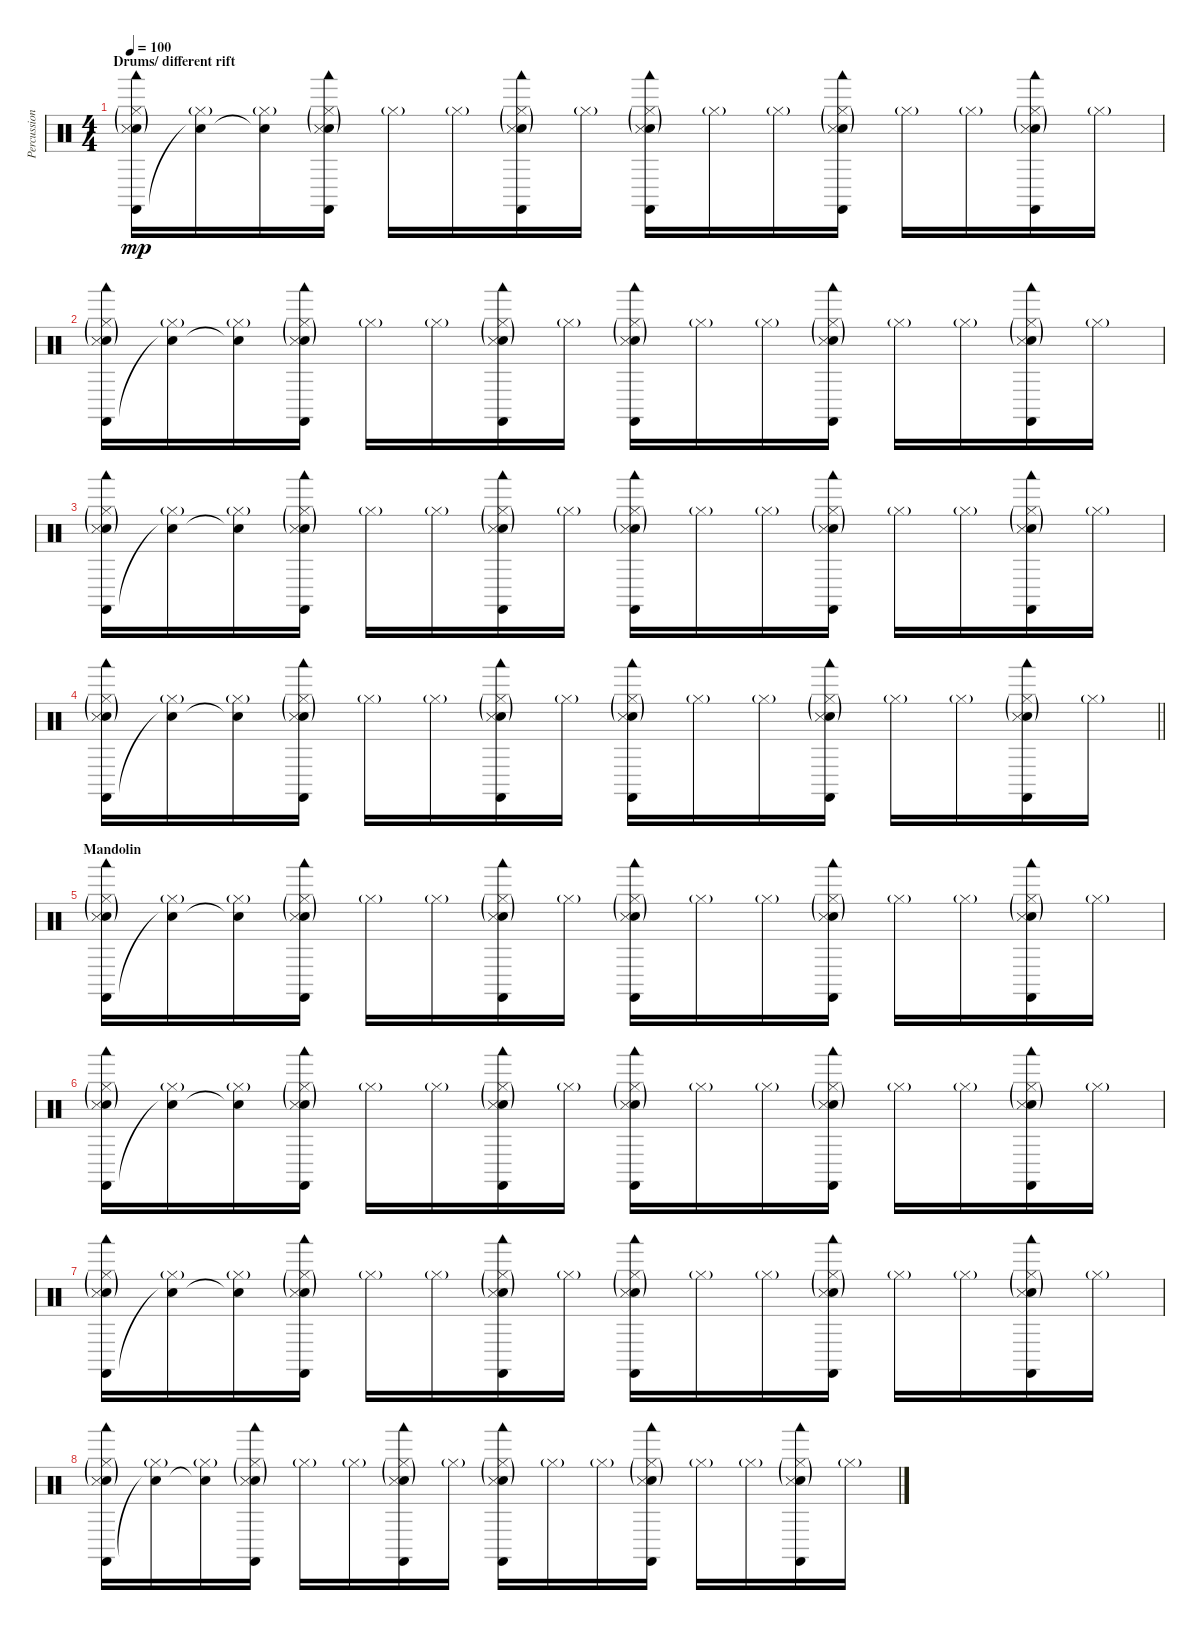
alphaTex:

\track ("Percussion" "Percussion") {instrument percussion}
\staff {score}
\articulation defaults
\ts (4 4)
\section ("" "Drums/ different rift")
\tempo 100
\clef neutral
\ks c
("Hi-Hat (closed)"{g} "Castanets (hit)" "Woodblock low (hit)" "Electric Snare (hit)"{g} "Metronome (hit)"{g}).16{dy mp balance 4} ("Hi-Hat (closed)"{g} "Snare (hit)"{t}).16 ("Hi-Hat (closed)"{g} "Snare (hit)"{t}).16 ("Hi-Hat (closed)"{g} "Castanets (hit)" "Woodblock low (hit)" "Electric Snare (hit)"{g} "Metronome (hit)"{g}).16 "Hi-Hat (closed)"{g}.16 "Hi-Hat (closed)"{g}.16 ("Hi-Hat (closed)"{g} "Castanets (hit)" "Woodblock low (hit)" "Electric Snare (hit)"{g} "Metronome (hit)"{g}).16 "Hi-Hat (closed)"{g}.16 ("Hi-Hat (closed)"{g} "Castanets (hit)" "Woodblock low (hit)" "Electric Snare (hit)"{g} "Metronome (hit)"{g}).16 "Hi-Hat (closed)"{g}.16 "Hi-Hat (closed)"{g}.16 ("Hi-Hat (closed)"{g} "Castanets (hit)" "Woodblock low (hit)" "Electric Snare (hit)"{g} "Metronome (hit)"{g}).16 "Hi-Hat (closed)"{g}.16 "Hi-Hat (closed)"{g}.16 ("Hi-Hat (closed)"{g} "Castanets (hit)" "Woodblock low (hit)" "Electric Snare (hit)"{g} "Metronome (hit)"{g}).16 "Hi-Hat (closed)"{g}.16 |
("Hi-Hat (closed)"{g} "Castanets (hit)" "Woodblock low (hit)" "Electric Snare (hit)"{g} "Metronome (hit)"{g}).16 ("Hi-Hat (closed)"{g} "Snare (hit)"{t}).16 ("Hi-Hat (closed)"{g} "Snare (hit)"{t}).16 ("Hi-Hat (closed)"{g} "Castanets (hit)" "Woodblock low (hit)" "Electric Snare (hit)"{g} "Metronome (hit)"{g}).16 "Hi-Hat (closed)"{g}.16 "Hi-Hat (closed)"{g}.16 ("Hi-Hat (closed)"{g} "Castanets (hit)" "Woodblock low (hit)" "Electric Snare (hit)"{g} "Metronome (hit)"{g}).16 "Hi-Hat (closed)"{g}.16 ("Hi-Hat (closed)"{g} "Castanets (hit)" "Woodblock low (hit)" "Electric Snare (hit)"{g} "Metronome (hit)"{g}).16 "Hi-Hat (closed)"{g}.16 "Hi-Hat (closed)"{g}.16 ("Hi-Hat (closed)"{g} "Castanets (hit)" "Woodblock low (hit)" "Electric Snare (hit)"{g} "Metronome (hit)"{g}).16 "Hi-Hat (closed)"{g}.16 "Hi-Hat (closed)"{g}.16 ("Hi-Hat (closed)"{g} "Castanets (hit)" "Woodblock low (hit)" "Electric Snare (hit)"{g} "Metronome (hit)"{g}).16 "Hi-Hat (closed)"{g}.16 |
("Hi-Hat (closed)"{g} "Castanets (hit)" "Woodblock low (hit)" "Electric Snare (hit)"{g} "Metronome (hit)"{g}).16 ("Hi-Hat (closed)"{g} "Snare (hit)"{t}).16 ("Hi-Hat (closed)"{g} "Snare (hit)"{t}).16 ("Hi-Hat (closed)"{g} "Castanets (hit)" "Woodblock low (hit)" "Electric Snare (hit)"{g} "Metronome (hit)"{g}).16 "Hi-Hat (closed)"{g}.16 "Hi-Hat (closed)"{g}.16 ("Hi-Hat (closed)"{g} "Castanets (hit)" "Woodblock low (hit)" "Electric Snare (hit)"{g} "Metronome (hit)"{g}).16 "Hi-Hat (closed)"{g}.16 ("Hi-Hat (closed)"{g} "Castanets (hit)" "Woodblock low (hit)" "Electric Snare (hit)"{g} "Metronome (hit)"{g}).16 "Hi-Hat (closed)"{g}.16 "Hi-Hat (closed)"{g}.16 ("Hi-Hat (closed)"{g} "Castanets (hit)" "Woodblock low (hit)" "Electric Snare (hit)"{g} "Metronome (hit)"{g}).16 "Hi-Hat (closed)"{g}.16 "Hi-Hat (closed)"{g}.16 ("Hi-Hat (closed)"{g} "Castanets (hit)" "Woodblock low (hit)" "Electric Snare (hit)"{g} "Metronome (hit)"{g}).16 "Hi-Hat (closed)"{g}.16 |
\barLineRight lightlight
("Hi-Hat (closed)"{g} "Castanets (hit)" "Woodblock low (hit)" "Electric Snare (hit)"{g} "Metronome (hit)"{g}).16 ("Hi-Hat (closed)"{g} "Snare (hit)"{t}).16 ("Hi-Hat (closed)"{g} "Snare (hit)"{t}).16 ("Hi-Hat (closed)"{g} "Castanets (hit)" "Woodblock low (hit)" "Electric Snare (hit)"{g} "Metronome (hit)"{g}).16 "Hi-Hat (closed)"{g}.16 "Hi-Hat (closed)"{g}.16 ("Hi-Hat (closed)"{g} "Castanets (hit)" "Woodblock low (hit)" "Electric Snare (hit)"{g} "Metronome (hit)"{g}).16 "Hi-Hat (closed)"{g}.16 ("Hi-Hat (closed)"{g} "Castanets (hit)" "Woodblock low (hit)" "Electric Snare (hit)"{g} "Metronome (hit)"{g}).16 "Hi-Hat (closed)"{g}.16 "Hi-Hat (closed)"{g}.16 ("Hi-Hat (closed)"{g} "Castanets (hit)" "Woodblock low (hit)" "Electric Snare (hit)"{g} "Metronome (hit)"{g}).16 "Hi-Hat (closed)"{g}.16 "Hi-Hat (closed)"{g}.16 ("Hi-Hat (closed)"{g} "Castanets (hit)" "Woodblock low (hit)" "Electric Snare (hit)"{g} "Metronome (hit)"{g}).16 "Hi-Hat (closed)"{g}.16 |
\section ("" "Mandolin")
("Hi-Hat (closed)"{g} "Castanets (hit)" "Woodblock low (hit)" "Electric Snare (hit)"{g} "Metronome (hit)"{g}).16 ("Hi-Hat (closed)"{g} "Snare (hit)"{t}).16 ("Hi-Hat (closed)"{g} "Snare (hit)"{t}).16 ("Hi-Hat (closed)"{g} "Castanets (hit)" "Woodblock low (hit)" "Electric Snare (hit)"{g} "Metronome (hit)"{g}).16 "Hi-Hat (closed)"{g}.16 "Hi-Hat (closed)"{g}.16 ("Hi-Hat (closed)"{g} "Castanets (hit)" "Woodblock low (hit)" "Electric Snare (hit)"{g} "Metronome (hit)"{g}).16 "Hi-Hat (closed)"{g}.16 ("Hi-Hat (closed)"{g} "Castanets (hit)" "Woodblock low (hit)" "Electric Snare (hit)"{g} "Metronome (hit)"{g}).16 "Hi-Hat (closed)"{g}.16 "Hi-Hat (closed)"{g}.16 ("Hi-Hat (closed)"{g} "Castanets (hit)" "Woodblock low (hit)" "Electric Snare (hit)"{g} "Metronome (hit)"{g}).16 "Hi-Hat (closed)"{g}.16 "Hi-Hat (closed)"{g}.16 ("Hi-Hat (closed)"{g} "Castanets (hit)" "Woodblock low (hit)" "Electric Snare (hit)"{g} "Metronome (hit)"{g}).16 "Hi-Hat (closed)"{g}.16 |
("Hi-Hat (closed)"{g} "Castanets (hit)" "Woodblock low (hit)" "Electric Snare (hit)"{g} "Metronome (hit)"{g}).16 ("Hi-Hat (closed)"{g} "Snare (hit)"{t}).16 ("Hi-Hat (closed)"{g} "Snare (hit)"{t}).16 ("Hi-Hat (closed)"{g} "Castanets (hit)" "Woodblock low (hit)" "Electric Snare (hit)"{g} "Metronome (hit)"{g}).16 "Hi-Hat (closed)"{g}.16 "Hi-Hat (closed)"{g}.16 ("Hi-Hat (closed)"{g} "Castanets (hit)" "Woodblock low (hit)" "Electric Snare (hit)"{g} "Metronome (hit)"{g}).16 "Hi-Hat (closed)"{g}.16 ("Hi-Hat (closed)"{g} "Castanets (hit)" "Woodblock low (hit)" "Electric Snare (hit)"{g} "Metronome (hit)"{g}).16 "Hi-Hat (closed)"{g}.16 "Hi-Hat (closed)"{g}.16 ("Hi-Hat (closed)"{g} "Castanets (hit)" "Woodblock low (hit)" "Electric Snare (hit)"{g} "Metronome (hit)"{g}).16 "Hi-Hat (closed)"{g}.16 "Hi-Hat (closed)"{g}.16 ("Hi-Hat (closed)"{g} "Castanets (hit)" "Woodblock low (hit)" "Electric Snare (hit)"{g} "Metronome (hit)"{g}).16 "Hi-Hat (closed)"{g}.16 |
("Hi-Hat (closed)"{g} "Castanets (hit)" "Woodblock low (hit)" "Electric Snare (hit)"{g} "Metronome (hit)"{g}).16 ("Hi-Hat (closed)"{g} "Snare (hit)"{t}).16 ("Hi-Hat (closed)"{g} "Snare (hit)"{t}).16 ("Hi-Hat (closed)"{g} "Castanets (hit)" "Woodblock low (hit)" "Electric Snare (hit)"{g} "Metronome (hit)"{g}).16 "Hi-Hat (closed)"{g}.16 "Hi-Hat (closed)"{g}.16 ("Hi-Hat (closed)"{g} "Castanets (hit)" "Woodblock low (hit)" "Electric Snare (hit)"{g} "Metronome (hit)"{g}).16 "Hi-Hat (closed)"{g}.16 ("Hi-Hat (closed)"{g} "Castanets (hit)" "Woodblock low (hit)" "Electric Snare (hit)"{g} "Metronome (hit)"{g}).16 "Hi-Hat (closed)"{g}.16 "Hi-Hat (closed)"{g}.16 ("Hi-Hat (closed)"{g} "Castanets (hit)" "Woodblock low (hit)" "Electric Snare (hit)"{g} "Metronome (hit)"{g}).16 "Hi-Hat (closed)"{g}.16 "Hi-Hat (closed)"{g}.16 ("Hi-Hat (closed)"{g} "Castanets (hit)" "Woodblock low (hit)" "Electric Snare (hit)"{g} "Metronome (hit)"{g}).16 "Hi-Hat (closed)"{g}.16 |
("Hi-Hat (closed)"{g} "Castanets (hit)" "Woodblock low (hit)" "Electric Snare (hit)"{g} "Metronome (hit)"{g}).16 ("Hi-Hat (closed)"{g} "Snare (hit)"{t}).16 ("Hi-Hat (closed)"{g} "Snare (hit)"{t}).16 ("Hi-Hat (closed)"{g} "Castanets (hit)" "Woodblock low (hit)" "Electric Snare (hit)"{g} "Metronome (hit)"{g}).16 "Hi-Hat (closed)"{g}.16 "Hi-Hat (closed)"{g}.16 ("Hi-Hat (closed)"{g} "Castanets (hit)" "Woodblock low (hit)" "Electric Snare (hit)"{g} "Metronome (hit)"{g}).16 "Hi-Hat (closed)"{g}.16 ("Hi-Hat (closed)"{g} "Castanets (hit)" "Woodblock low (hit)" "Electric Snare (hit)"{g} "Metronome (hit)"{g}).16 "Hi-Hat (closed)"{g}.16 "Hi-Hat (closed)"{g}.16 ("Hi-Hat (closed)"{g} "Castanets (hit)" "Woodblock low (hit)" "Electric Snare (hit)"{g} "Metronome (hit)"{g}).16 "Hi-Hat (closed)"{g}.16 "Hi-Hat (closed)"{g}.16 ("Hi-Hat (closed)"{g} "Castanets (hit)" "Woodblock low (hit)" "Electric Snare (hit)"{g} "Metronome (hit)"{g}).16 "Hi-Hat (closed)"{g}.16
